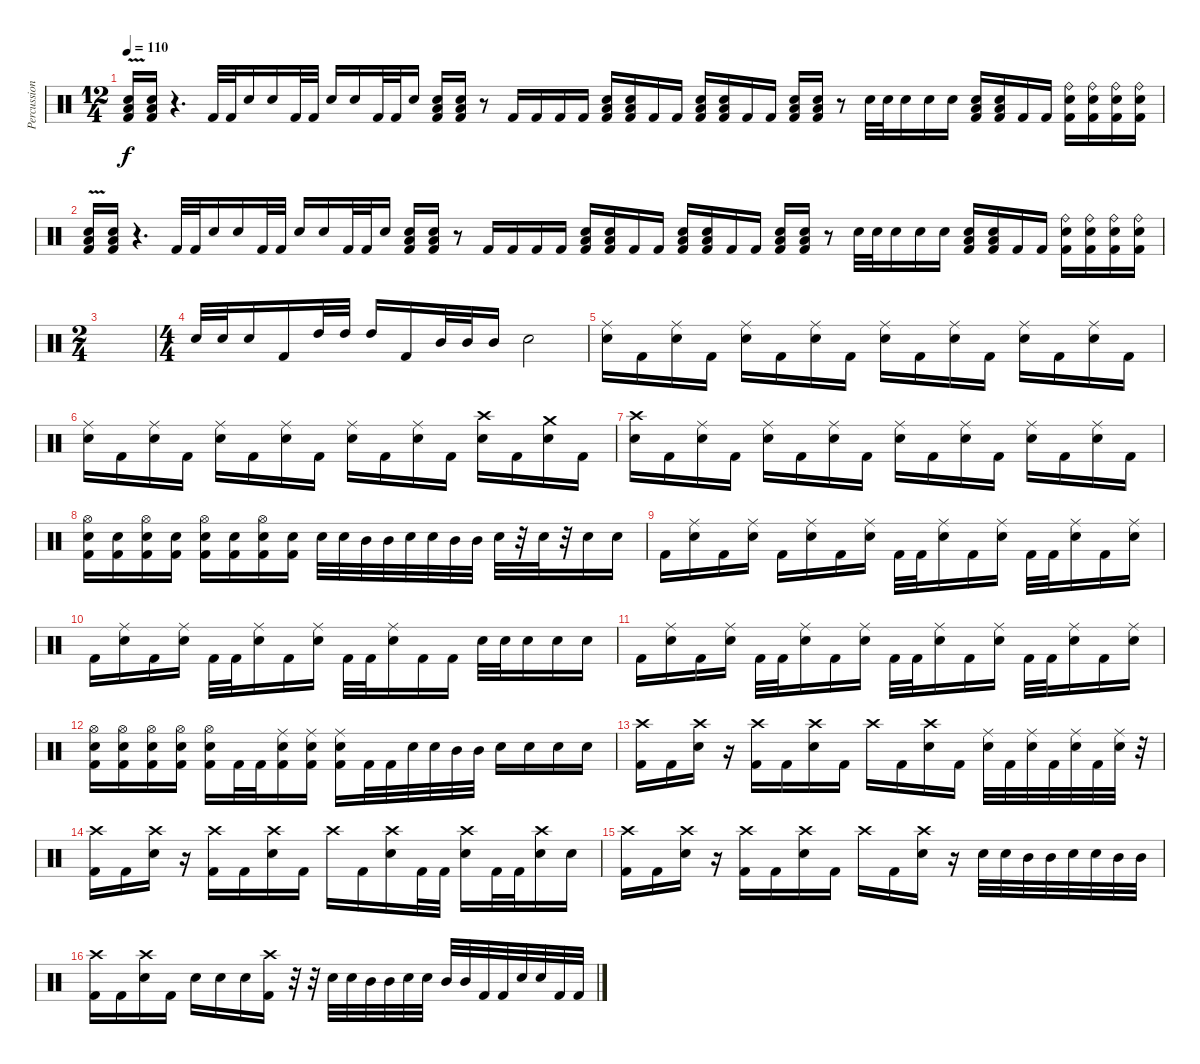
\track ("Percussion" "Percussion") {instrument percussion}
\staff {score}
\articulation defaults
\ts (12 4)
\tempo 110
\clef neutral
\ks c
("Low Floor Tom (hit)"{v} "Electric Snare (hit)"{v} "Kick (hit) 2").16{dy f} ("Low Floor Tom (hit)" "Electric Snare (hit)" "Kick (hit) 2").16 r.4{d} "Kick (hit) 2".32 "Kick (hit) 2".32 "Electric Snare (hit)".16 "Electric Snare (hit)".16 "Kick (hit) 2".32 "Kick (hit) 2".32 "Electric Snare (hit)".16 "Electric Snare (hit)".16 "Kick (hit) 2".32 "Kick (hit) 2".32 "Electric Snare (hit)".16 ("Low Floor Tom (hit)" "Electric Snare (hit)" "Kick (hit) 2").16 ("Low Floor Tom (hit)" "Electric Snare (hit)" "Kick (hit) 2").16 r.8 "Kick (hit) 2".16 "Kick (hit) 2".16 "Kick (hit) 2".16 "Kick (hit) 2".16 ("Low Floor Tom (hit)" "Electric Snare (hit)" "Kick (hit) 2").16 ("Low Floor Tom (hit)" "Electric Snare (hit)" "Kick (hit) 2").16 "Kick (hit) 2".16 "Kick (hit) 2".16 ("Low Floor Tom (hit)" "Electric Snare (hit)" "Kick (hit) 2").16 ("Low Floor Tom (hit)" "Electric Snare (hit)" "Kick (hit) 2").16 "Kick (hit) 2".16 "Kick (hit) 2".16 ("Low Floor Tom (hit)" "Electric Snare (hit)" "Kick (hit) 2").16 ("Low Floor Tom (hit)" "Electric Snare (hit)" "Kick (hit) 2").16 r.8 "Electric Snare (hit)".32 "Electric Snare (hit)".32 "Electric Snare (hit)".16 "Electric Snare (hit)".16 "Electric Snare (hit)".16 ("Low Floor Tom (hit)" "Electric Snare (hit)" "Kick (hit) 2").16 ("Low Floor Tom (hit)" "Electric Snare (hit)" "Kick (hit) 2").16 "Kick (hit) 2".16 "Kick (hit) 2".16 ("Ride (bell)" "Electric Snare (hit)" "Kick (hit) 2").16 ("Ride (bell)" "Electric Snare (hit)" "Kick (hit) 2").16 ("Ride (bell)" "Electric Snare (hit)" "Kick (hit) 2").16 ("Ride (bell)" "Electric Snare (hit)" "Kick (hit) 2").16 |
("Low Floor Tom (hit)" "Electric Snare (hit)"{v} "Kick (hit) 2").16 ("Low Floor Tom (hit)" "Electric Snare (hit)" "Kick (hit) 2").16 r.4{d} "Kick (hit) 2".32 "Kick (hit) 2".32 "Electric Snare (hit)".16 "Electric Snare (hit)".16 "Kick (hit) 2".32 "Kick (hit) 2".32 "Electric Snare (hit)".16 "Electric Snare (hit)".16 "Kick (hit) 2".32 "Kick (hit) 2".32 "Electric Snare (hit)".16 ("Low Floor Tom (hit)" "Electric Snare (hit)" "Kick (hit) 2").16 ("Low Floor Tom (hit)" "Electric Snare (hit)" "Kick (hit) 2").16 r.8 "Kick (hit) 2".16 "Kick (hit) 2".16 "Kick (hit) 2".16 "Kick (hit) 2".16 ("Low Floor Tom (hit)" "Electric Snare (hit)" "Kick (hit) 2").16 ("Low Floor Tom (hit)" "Electric Snare (hit)" "Kick (hit) 2").16 "Kick (hit) 2".16 "Kick (hit) 2".16 ("Low Floor Tom (hit)" "Electric Snare (hit)" "Kick (hit) 2").16 ("Low Floor Tom (hit)" "Electric Snare (hit)" "Kick (hit) 2").16 "Kick (hit) 2".16 "Kick (hit) 2".16 ("Low Floor Tom (hit)" "Electric Snare (hit)" "Kick (hit) 2").16 ("Low Floor Tom (hit)" "Electric Snare (hit)" "Kick (hit) 2").16 r.8 "Electric Snare (hit)".32 "Electric Snare (hit)".32 "Electric Snare (hit)".16 "Electric Snare (hit)".16 "Electric Snare (hit)".16 ("Low Floor Tom (hit)" "Electric Snare (hit)" "Kick (hit) 2").16 ("Low Floor Tom (hit)" "Electric Snare (hit)" "Kick (hit) 2").16 "Kick (hit) 2".16 "Kick (hit) 2".16 ("Ride (bell)" "Electric Snare (hit)" "Kick (hit) 2").16 ("Ride (bell)" "Electric Snare (hit)" "Kick (hit) 2").16 ("Ride (bell)" "Electric Snare (hit)" "Kick (hit) 2").16 ("Ride (bell)" "Electric Snare (hit)" "Kick (hit) 2").16 |
\ts (2 4)
|
\ts (4 4)
"Electric Snare (hit)".32 "Electric Snare (hit)".32 "Electric Snare (hit)".16 "Kick (hit) 2".16 "High Tom (hit)".32 "High Tom (hit)".32 "High Tom (hit)".16 "Kick (hit) 2".16 "Mid Tom (hit)".32 "Mid Tom (hit)".32 "Mid Tom (hit)".16 "Electric Snare (hit)".2 |
("Ride (middle)" "Electric Snare (hit)").16 "Kick (hit) 2".16 ("Ride (middle)" "Electric Snare (hit)").16 "Kick (hit) 2".16 ("Ride (middle)" "Electric Snare (hit)").16 "Kick (hit) 2".16 ("Ride (middle)" "Electric Snare (hit)").16 "Kick (hit) 2".16 ("Ride (middle)" "Electric Snare (hit)").16 "Kick (hit) 2".16 ("Ride (middle)" "Electric Snare (hit)").16 "Kick (hit) 2".16 ("Ride (middle)" "Electric Snare (hit)").16 "Kick (hit) 2".16 ("Ride (middle)" "Electric Snare (hit)").16 "Kick (hit) 2".16 |
("Ride (middle)" "Electric Snare (hit)").16 "Kick (hit) 2".16 ("Ride (middle)" "Electric Snare (hit)").16 "Kick (hit) 2".16 ("Ride (middle)" "Electric Snare (hit)").16 "Kick (hit) 2".16 ("Ride (middle)" "Electric Snare (hit)").16 "Kick (hit) 2".16 ("Ride (middle)" "Electric Snare (hit)").16 "Kick (hit) 2".16 ("Ride (middle)" "Electric Snare (hit)").16 "Kick (hit) 2".16 ("Crash high (hit)" "Electric Snare (hit)").16 "Kick (hit) 2".16 ("Crash medium (hit)" "Electric Snare (hit)").16 "Kick (hit) 2".16 |
("Crash high (hit)" "Electric Snare (hit)").16 "Kick (hit) 2".16 ("Ride (middle)" "Electric Snare (hit)").16 "Kick (hit) 2".16 ("Ride (middle)" "Electric Snare (hit)").16 "Kick (hit) 2".16 ("Ride (middle)" "Electric Snare (hit)").16 "Kick (hit) 2".16 ("Ride (middle)" "Electric Snare (hit)").16 "Kick (hit) 2".16 ("Ride (middle)" "Electric Snare (hit)").16 "Kick (hit) 2".16 ("Ride (middle)" "Electric Snare (hit)").16 "Kick (hit) 2".16 ("Ride (middle)" "Electric Snare (hit)").16 "Kick (hit) 2".16 |
("Hi-Hat (open)" "Electric Snare (hit)" "Kick (hit) 2").16 ("Electric Snare (hit)" "Kick (hit) 2").16 ("Hi-Hat (open)" "Electric Snare (hit)" "Kick (hit) 2").16 ("Electric Snare (hit)" "Kick (hit) 2").16 ("Hi-Hat (open)" "Electric Snare (hit)" "Kick (hit) 2").16 ("Electric Snare (hit)" "Kick (hit) 2").16 ("Hi-Hat (open)" "Electric Snare (hit)" "Kick (hit) 2").16 ("Electric Snare (hit)" "Kick (hit) 2").16 "Electric Snare (hit)".32 "Electric Snare (hit)".32 "Mid Tom (hit)".32 "Mid Tom (hit)".32 "Electric Snare (hit)".32 "Electric Snare (hit)".32 "Mid Tom (hit)".32 "Mid Tom (hit)".32 "Electric Snare (hit)".32 r.32 "Electric Snare (hit)".32 r.32 "Electric Snare (hit)".16 "Electric Snare (hit)".16 |
"Kick (hit) 2".16 ("Ride (middle)" "Electric Snare (hit)").16 "Kick (hit) 2".16 ("Ride (middle)" "Electric Snare (hit)").16 "Kick (hit) 2".16 ("Ride (middle)" "Electric Snare (hit)").16 "Kick (hit) 2".16 ("Ride (middle)" "Electric Snare (hit)").16 "Kick (hit) 2".32 "Kick (hit) 2".32 ("Ride (middle)" "Electric Snare (hit)").16 "Kick (hit) 2".16 ("Ride (middle)" "Electric Snare (hit)").16 "Kick (hit) 2".32 "Kick (hit) 2".32 ("Ride (middle)" "Electric Snare (hit)").16 "Kick (hit) 2".16 ("Ride (middle)" "Electric Snare (hit)").16 |
"Kick (hit) 2".16 ("Ride (middle)" "Electric Snare (hit)").16 "Kick (hit) 2".16 ("Ride (middle)" "Electric Snare (hit)").16 "Kick (hit) 2".32 "Kick (hit) 2".32 ("Ride (middle)" "Electric Snare (hit)").16 "Kick (hit) 2".16 ("Ride (middle)" "Electric Snare (hit)").16 "Kick (hit) 2".32 "Kick (hit) 2".32 ("Ride (middle)" "Electric Snare (hit)").16 "Kick (hit) 2".16 "Kick (hit) 2".16 "Electric Snare (hit)".32 "Electric Snare (hit)".32 "Electric Snare (hit)".16 "Electric Snare (hit)".16 "Electric Snare (hit)".16 |
"Kick (hit) 2".16 ("Ride (middle)" "Electric Snare (hit)").16 "Kick (hit) 2".16 ("Ride (middle)" "Electric Snare (hit)").16 "Kick (hit) 2".32 "Kick (hit) 2".32 ("Ride (middle)" "Electric Snare (hit)").16 "Kick (hit) 2".16 ("Ride (middle)" "Electric Snare (hit)").16 "Kick (hit) 2".32 "Kick (hit) 2".32 ("Ride (middle)" "Electric Snare (hit)").16 "Kick (hit) 2".16 ("Ride (middle)" "Electric Snare (hit)").16 "Kick (hit) 2".32 "Kick (hit) 2".32 ("Ride (middle)" "Electric Snare (hit)").16 "Kick (hit) 2".16 ("Ride (middle)" "Electric Snare (hit)").16 |
("Hi-Hat (open)" "Electric Snare (hit)" "Kick (hit) 2").16 ("Hi-Hat (open)" "Electric Snare (hit)" "Kick (hit) 2").16 ("Hi-Hat (open)" "Electric Snare (hit)" "Kick (hit) 2").16 ("Hi-Hat (open)" "Electric Snare (hit)" "Kick (hit) 2").16 ("Hi-Hat (open)" "Electric Snare (hit)" "Kick (hit) 2").16 "Kick (hit) 2".32 "Kick (hit) 2".32 ("Ride (middle)" "Electric Snare (hit)" "Kick (hit) 2").16 ("Ride (middle)" "Electric Snare (hit)" "Kick (hit) 2").16 ("Ride (middle)" "Electric Snare (hit)" "Kick (hit) 2").16 "Kick (hit) 2".32 "Kick (hit) 2".32 "Electric Snare (hit)".32 "Electric Snare (hit)".32 "Mid Tom (hit)".32 "Mid Tom (hit)".32 "Electric Snare (hit)".16 "Electric Snare (hit)".16 "Electric Snare (hit)".16 "Electric Snare (hit)".16 |
("Crash high (hit)" "Kick (hit) 2").16 "Kick (hit) 2".16 ("Crash high (hit)" "Electric Snare (hit)").16 r.16 ("Crash high (hit)" "Kick (hit) 2").16 "Kick (hit) 2".16 ("Crash high (hit)" "Electric Snare (hit)").16 "Kick (hit) 2".16 "Crash high (hit)".16 "Kick (hit) 2".16 ("Crash high (hit)" "Electric Snare (hit)").16 "Kick (hit) 2".16 ("Ride (middle)" "Electric Snare (hit)").32 "Kick (hit) 2".32 ("Ride (middle)" "Electric Snare (hit)").32 "Kick (hit) 2".32 ("Ride (middle)" "Electric Snare (hit)").32 "Kick (hit) 2".32 ("Ride (middle)" "Electric Snare (hit)").32 r.32 |
("Crash high (hit)" "Kick (hit) 2").16 "Kick (hit) 2".16 ("Crash high (hit)" "Electric Snare (hit)").16 r.16 ("Crash high (hit)" "Kick (hit) 2").16 "Kick (hit) 2".16 ("Crash high (hit)" "Electric Snare (hit)").16 "Kick (hit) 2".16 "Crash high (hit)".16 "Kick (hit) 2".16 ("Crash high (hit)" "Electric Snare (hit)").16 "Kick (hit) 2".32 "Kick (hit) 2".32 ("Crash high (hit)" "Electric Snare (hit)").16 "Kick (hit) 2".32 "Kick (hit) 2".32 ("Crash high (hit)" "Electric Snare (hit)").16 "Electric Snare (hit)".16 |
("Crash high (hit)" "Kick (hit) 2").16 "Kick (hit) 2".16 ("Crash high (hit)" "Electric Snare (hit)").16 r.16 ("Crash high (hit)" "Kick (hit) 2").16 "Kick (hit) 2".16 ("Crash high (hit)" "Electric Snare (hit)").16 "Kick (hit) 2".16 "Crash high (hit)".16 "Kick (hit) 2".16 ("Crash high (hit)" "Electric Snare (hit)").16 r.16 "Electric Snare (hit)".32 "Electric Snare (hit)".32 "Mid Tom (hit)".32 "Mid Tom (hit)".32 "Electric Snare (hit)".32 "Electric Snare (hit)".32 "Mid Tom (hit)".32 "Mid Tom (hit)".32 |
("Crash high (hit)" "Kick (hit) 2").16 "Kick (hit) 2".16 ("Crash high (hit)" "Electric Snare (hit)").16 "Kick (hit) 2".16 "Electric Snare (hit)".16 "Electric Snare (hit)".16 "Electric Snare (hit)".16 ("Crash high (hit)" "Kick (hit) 2").16 r.32 r.32 "Electric Snare (hit)".32 "Electric Snare (hit)".32 "Mid Tom (hit)".32 "Mid Tom (hit)".32 "Electric Snare (hit)".32 "Electric Snare (hit)".32 "Mid Tom (hit)".32 "Mid Tom (hit)".32 "Kick (hit) 2".32 "Kick (hit) 2".32 "Electric Snare (hit)".32 "Electric Snare (hit)".32 "Kick (hit) 2".32 "Kick (hit) 2".32
